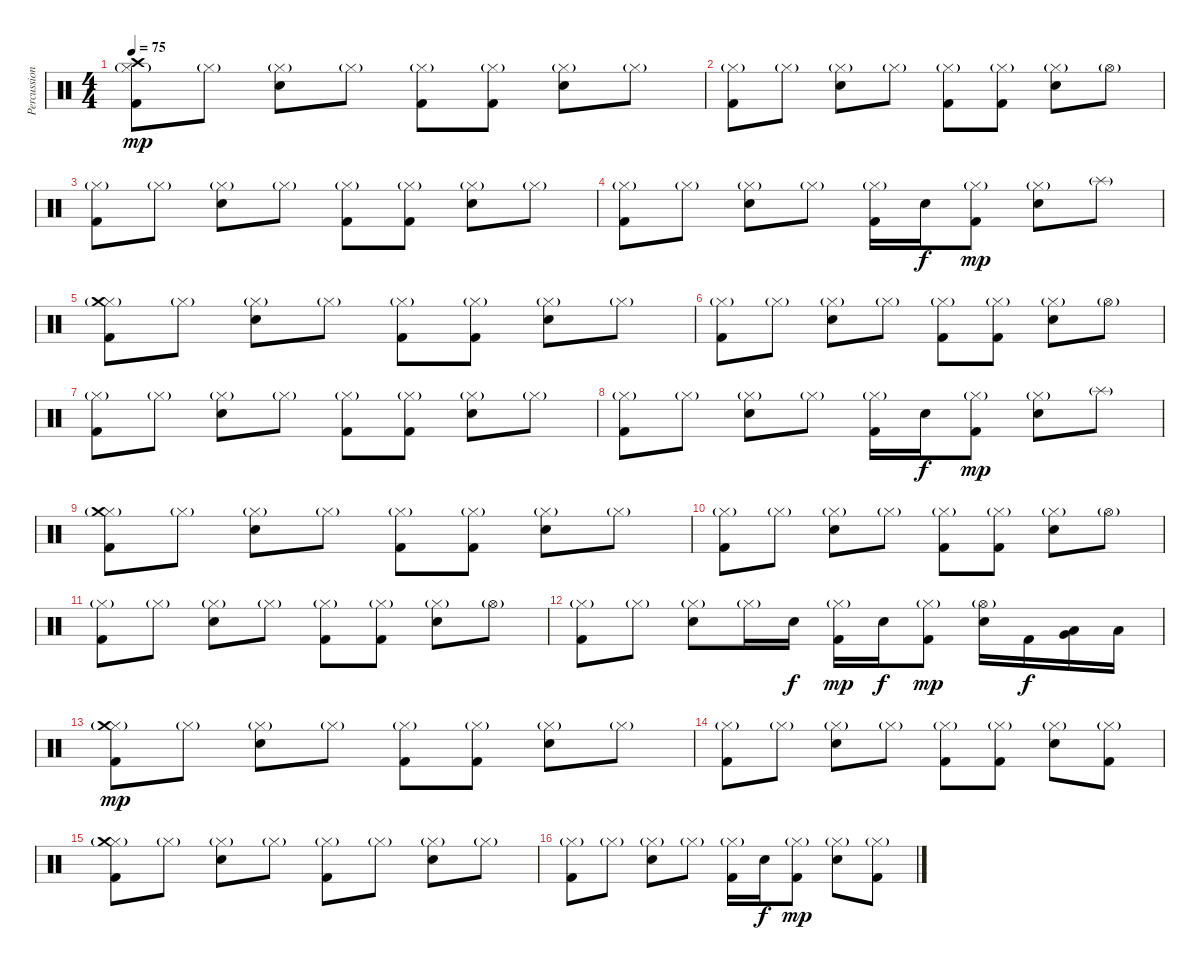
\track ("Percussion" "Percussion") {instrument percussion}
\staff {score}
\articulation defaults
\ts (4 4)
\tempo 75
\clef neutral
\ks c
("Hi-Hat (closed)"{g} "Crash high (hit)" "Kick (hit) 2").8{dy mp} "Hi-Hat (closed)"{g}.8 ("Hi-Hat (closed)"{g} "Electric Snare (hit)").8 "Hi-Hat (closed)"{g}.8 ("Hi-Hat (closed)"{g} "Kick (hit) 2").8 ("Hi-Hat (closed)"{g} "Kick (hit) 2").8 ("Hi-Hat (closed)"{g} "Electric Snare (hit)").8 "Hi-Hat (closed)"{g}.8 |
("Hi-Hat (closed)"{g} "Kick (hit) 2").8 "Hi-Hat (closed)"{g}.8 ("Hi-Hat (closed)"{g} "Electric Snare (hit)").8 "Hi-Hat (closed)"{g}.8 ("Hi-Hat (closed)"{g} "Kick (hit) 2").8 ("Hi-Hat (closed)"{g} "Kick (hit) 2").8 ("Hi-Hat (closed)"{g} "Electric Snare (hit)").8 "Hi-Hat (open)"{g}.8 |
("Hi-Hat (closed)"{g} "Kick (hit) 2").8 "Hi-Hat (closed)"{g}.8 ("Hi-Hat (closed)"{g} "Electric Snare (hit)").8 "Hi-Hat (closed)"{g}.8 ("Hi-Hat (closed)"{g} "Kick (hit) 2").8 ("Hi-Hat (closed)"{g} "Kick (hit) 2").8 ("Hi-Hat (closed)"{g} "Electric Snare (hit)").8 "Hi-Hat (closed)"{g}.8 |
("Hi-Hat (closed)"{g} "Kick (hit) 2").8 "Hi-Hat (closed)"{g}.8 ("Hi-Hat (closed)"{g} "Electric Snare (hit)").8 "Hi-Hat (closed)"{g}.8 ("Hi-Hat (closed)"{g} "Kick (hit) 2").16 "Electric Snare (hit)".16{dy f} ("Hi-Hat (closed)"{g} "Kick (hit) 2").8{dy mp} ("Hi-Hat (closed)"{g} "Electric Snare (hit)").8 "Splash (hit)"{g}.8 |
("Hi-Hat (closed)"{g} "Crash medium (hit)" "Kick (hit) 2").8 "Hi-Hat (closed)"{g}.8 ("Hi-Hat (closed)"{g} "Electric Snare (hit)").8 "Hi-Hat (closed)"{g}.8 ("Hi-Hat (closed)"{g} "Kick (hit) 2").8 ("Hi-Hat (closed)"{g} "Kick (hit) 2").8 ("Hi-Hat (closed)"{g} "Electric Snare (hit)").8 "Hi-Hat (closed)"{g}.8 |
("Hi-Hat (closed)"{g} "Kick (hit) 2").8 "Hi-Hat (closed)"{g}.8 ("Hi-Hat (closed)"{g} "Electric Snare (hit)").8 "Hi-Hat (closed)"{g}.8 ("Hi-Hat (closed)"{g} "Kick (hit) 2").8 ("Hi-Hat (closed)"{g} "Kick (hit) 2").8 ("Hi-Hat (closed)"{g} "Electric Snare (hit)").8 "Hi-Hat (open)"{g}.8 |
("Hi-Hat (closed)"{g} "Kick (hit) 2").8 "Hi-Hat (closed)"{g}.8 ("Hi-Hat (closed)"{g} "Electric Snare (hit)").8 "Hi-Hat (closed)"{g}.8 ("Hi-Hat (closed)"{g} "Kick (hit) 2").8 ("Hi-Hat (closed)"{g} "Kick (hit) 2").8 ("Hi-Hat (closed)"{g} "Electric Snare (hit)").8 "Hi-Hat (closed)"{g}.8 |
("Hi-Hat (closed)"{g} "Kick (hit) 2").8 "Hi-Hat (closed)"{g}.8 ("Hi-Hat (closed)"{g} "Electric Snare (hit)").8 "Hi-Hat (closed)"{g}.8 ("Hi-Hat (closed)"{g} "Kick (hit) 2").16 "Electric Snare (hit)".16{dy f} ("Hi-Hat (closed)"{g} "Kick (hit) 2").8{dy mp} ("Hi-Hat (closed)"{g} "Electric Snare (hit)").8 "Splash (hit)"{g}.8 |
("Hi-Hat (closed)"{g} "Crash medium (hit)" "Kick (hit) 2").8 "Hi-Hat (closed)"{g}.8 ("Hi-Hat (closed)"{g} "Electric Snare (hit)").8 "Hi-Hat (closed)"{g}.8 ("Hi-Hat (closed)"{g} "Kick (hit) 2").8 ("Hi-Hat (closed)"{g} "Kick (hit) 2").8 ("Hi-Hat (closed)"{g} "Electric Snare (hit)").8 "Hi-Hat (closed)"{g}.8 |
("Hi-Hat (closed)"{g} "Kick (hit) 2").8 "Hi-Hat (closed)"{g}.8 ("Hi-Hat (closed)"{g} "Electric Snare (hit)").8 "Hi-Hat (closed)"{g}.8 ("Hi-Hat (closed)"{g} "Kick (hit) 2").8 ("Hi-Hat (closed)"{g} "Kick (hit) 2").8 ("Hi-Hat (closed)"{g} "Electric Snare (hit)").8 "Hi-Hat (open)"{g}.8 |
("Hi-Hat (closed)"{g} "Kick (hit) 2").8 "Hi-Hat (closed)"{g}.8 ("Hi-Hat (closed)"{g} "Electric Snare (hit)").8 "Hi-Hat (closed)"{g}.8 ("Hi-Hat (closed)"{g} "Kick (hit) 2").8 ("Hi-Hat (closed)"{g} "Kick (hit) 2").8 ("Hi-Hat (closed)"{g} "Electric Snare (hit)").8 "Hi-Hat (open)"{g}.8 |
("Hi-Hat (closed)"{g} "Kick (hit) 2").8 "Hi-Hat (closed)"{g}.8 ("Hi-Hat (closed)"{g} "Electric Snare (hit)").8 "Hi-Hat (closed)"{g}.16 "Electric Snare (hit)".16{dy f} ("Hi-Hat (closed)"{g} "Kick (hit) 2").16{dy mp} "Electric Snare (hit)".16{dy f} ("Hi-Hat (closed)"{g} "Kick (hit) 2").8{dy mp} ("Hi-Hat (open)"{g} "Electric Snare (hit)").16 "Kick (hit) 2".16{dy f} ("Low Tom (hit)" "Very Low Tom (hit)").16 "Low Floor Tom (hit)".16 |
("Hi-Hat (closed)"{g} "Crash medium (hit)" "Kick (hit) 2").8{dy mp} "Hi-Hat (closed)"{g}.8 ("Hi-Hat (closed)"{g} "Electric Snare (hit)").8 "Hi-Hat (closed)"{g}.8 ("Hi-Hat (closed)"{g} "Kick (hit) 2").8 ("Hi-Hat (closed)"{g} "Kick (hit) 2").8 ("Hi-Hat (closed)"{g} "Electric Snare (hit)").8 "Hi-Hat (closed)"{g}.8 |
("Hi-Hat (closed)"{g} "Kick (hit) 2").8 "Hi-Hat (closed)"{g}.8 ("Hi-Hat (closed)"{g} "Electric Snare (hit)").8 "Hi-Hat (closed)"{g}.8 ("Hi-Hat (closed)"{g} "Kick (hit) 2").8 ("Hi-Hat (closed)"{g} "Kick (hit) 2").8 ("Hi-Hat (closed)"{g} "Electric Snare (hit)").8 ("Hi-Hat (closed)"{g} "Kick (hit) 2").8 |
("Hi-Hat (closed)"{g} "Crash medium (hit)" "Kick (hit) 2").8 "Hi-Hat (closed)"{g}.8 ("Hi-Hat (closed)"{g} "Electric Snare (hit)").8 "Hi-Hat (closed)"{g}.8 ("Hi-Hat (closed)"{g} "Kick (hit) 2").8 "Hi-Hat (closed)"{g}.8 ("Hi-Hat (closed)"{g} "Electric Snare (hit)").8 "Hi-Hat (closed)"{g}.8 |
("Hi-Hat (closed)"{g} "Kick (hit) 2").8 "Hi-Hat (closed)"{g}.8 ("Hi-Hat (closed)"{g} "Electric Snare (hit)").8 "Hi-Hat (closed)"{g}.8 ("Hi-Hat (closed)"{g} "Kick (hit) 2").16 "Electric Snare (hit)".16{dy f} ("Hi-Hat (closed)"{g} "Kick (hit) 2").8{dy mp} ("Hi-Hat (closed)"{g} "Electric Snare (hit)").8 ("Hi-Hat (closed)"{g} "Kick (hit) 2").8
